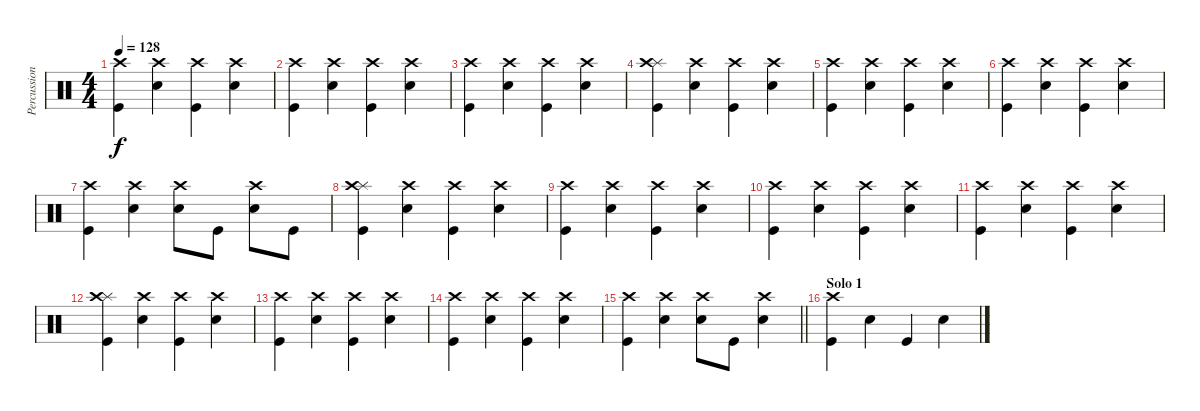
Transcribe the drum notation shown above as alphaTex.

\track ("Percussion" "Percussion") {instrument percussion}
\staff {score}
\articulation defaults
\ts (4 4)
\tempo 128
\clef neutral
\ks c
("Crash high (hit)" "Kick (hit)").4{dy f} ("Crash high (hit)" "Electric Snare (hit)").4 ("Crash high (hit)" "Kick (hit)").4 ("Crash high (hit)" "Electric Snare (hit)").4 |
("Crash high (hit)" "Kick (hit)").4 ("Crash high (hit)" "Electric Snare (hit)").4 ("Crash high (hit)" "Kick (hit)").4 ("Crash high (hit)" "Electric Snare (hit)").4 |
("Crash high (hit)" "Kick (hit)").4 ("Crash high (hit)" "Electric Snare (hit)").4 ("Crash high (hit)" "Kick (hit)").4 ("Crash high (hit)" "Electric Snare (hit)").4 |
("Splash (hit)" "Crash high (hit)" "Kick (hit)").4 ("Crash high (hit)" "Electric Snare (hit)").4 ("Crash high (hit)" "Kick (hit)").4 ("Crash high (hit)" "Electric Snare (hit)").4 |
("Crash high (hit)" "Kick (hit)").4 ("Crash high (hit)" "Electric Snare (hit)").4 ("Crash high (hit)" "Kick (hit)").4 ("Crash high (hit)" "Electric Snare (hit)").4 |
("Crash high (hit)" "Kick (hit)").4 ("Crash high (hit)" "Electric Snare (hit)").4 ("Crash high (hit)" "Kick (hit)").4 ("Crash high (hit)" "Electric Snare (hit)").4 |
("Crash high (hit)" "Kick (hit)").4 ("Crash high (hit)" "Electric Snare (hit)").4 ("Crash high (hit)" "Electric Snare (hit)").8 "Kick (hit)".8 ("Crash high (hit)" "Electric Snare (hit)").8 "Kick (hit)".8 |
("Splash (hit)" "Crash high (hit)" "Kick (hit)").4 ("Crash high (hit)" "Electric Snare (hit)").4 ("Crash high (hit)" "Kick (hit)").4 ("Crash high (hit)" "Electric Snare (hit)").4 |
("Crash high (hit)" "Kick (hit)").4 ("Crash high (hit)" "Electric Snare (hit)").4 ("Crash high (hit)" "Kick (hit)").4 ("Crash high (hit)" "Electric Snare (hit)").4 |
("Crash high (hit)" "Kick (hit)").4 ("Crash high (hit)" "Electric Snare (hit)").4 ("Crash high (hit)" "Kick (hit)").4 ("Crash high (hit)" "Electric Snare (hit)").4 |
("Crash high (hit)" "Kick (hit)").4 ("Crash high (hit)" "Electric Snare (hit)").4 ("Crash high (hit)" "Kick (hit)").4 ("Crash high (hit)" "Electric Snare (hit)").4 |
("Splash (hit)" "Crash high (hit)" "Kick (hit)").4 ("Crash high (hit)" "Electric Snare (hit)").4 ("Crash high (hit)" "Kick (hit)").4 ("Crash high (hit)" "Electric Snare (hit)").4 |
("Crash high (hit)" "Kick (hit)").4 ("Crash high (hit)" "Electric Snare (hit)").4 ("Crash high (hit)" "Kick (hit)").4 ("Crash high (hit)" "Electric Snare (hit)").4 |
("Crash high (hit)" "Kick (hit)").4 ("Crash high (hit)" "Electric Snare (hit)").4 ("Crash high (hit)" "Kick (hit)").4 ("Crash high (hit)" "Electric Snare (hit)").4 |
\barLineRight lightlight
("Crash high (hit)" "Kick (hit)").4 ("Crash high (hit)" "Electric Snare (hit)").4 ("Crash high (hit)" "Electric Snare (hit)").8 "Kick (hit)".8 ("Crash high (hit)" "Electric Snare (hit)").4 |
\section ("" "Solo 1")
("Crash high (hit)" "Kick (hit)").4 "Electric Snare (hit)".4 "Kick (hit)".4 "Electric Snare (hit)".4
